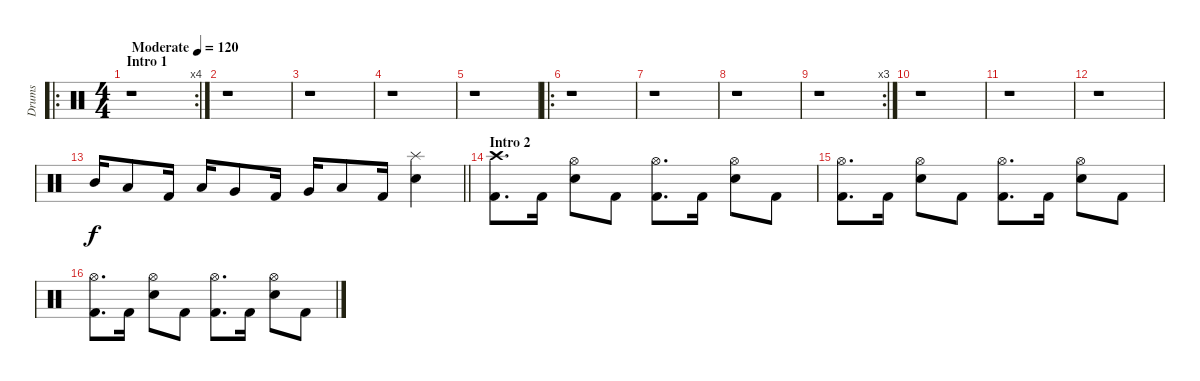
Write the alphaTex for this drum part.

\track ("Drums" "Drums") {instrument percussion}
\staff {score}
\articulation defaults
\ro
\rc 4
\ts (4 4)
\section ("" "Intro 1")
\tempo (120 "Moderate")
\clef neutral
\ks c
r.1{dy f} |
r.1 |
r.1 |
r.1 |
r.1 |
\ro
r.1 |
r.1 |
r.1 |
\rc 3
r.1 |
r.1 |
r.1 |
r.1 |
\barLineRight lightlight "Mid Tom (hit)".16 "Low Tom (hit)".8 "Kick (hit) 2".16 "Low Tom (hit)".16 "Very Low Tom (hit)".8 "Kick (hit) 2".16 "Very Low Tom (hit)".16 "Low Floor Tom (hit)".8 "Kick (hit) 2".16
("Splash (hit)" "Snare (hit) 2").4 |
\section ("" "Intro 2")
("Crash high (hit)" "Kick (hit) 2").8{d} "Kick (hit) 2".16 ("Hi-Hat (open)" "Snare (hit) 2").8 "Kick (hit) 2".8 ("Hi-Hat (open)" "Kick (hit) 2").8{d} "Kick (hit) 2".16 ("Hi-Hat (open)" "Snare (hit) 2").8 "Kick (hit) 2".8 |
("Hi-Hat (open)" "Kick (hit) 2").8{d} "Kick (hit) 2".16 ("Hi-Hat (open)" "Snare (hit) 2").8 "Kick (hit) 2".8 ("Hi-Hat (open)" "Kick (hit) 2").8{d} "Kick (hit) 2".16 ("Hi-Hat (open)" "Snare (hit) 2").8 "Kick (hit) 2".8 |
("Hi-Hat (open)" "Kick (hit) 2").8{d} "Kick (hit) 2".16 ("Hi-Hat (open)" "Snare (hit) 2").8 "Kick (hit) 2".8 ("Hi-Hat (open)" "Kick (hit) 2").8{d} "Kick (hit) 2".16 ("Hi-Hat (open)" "Snare (hit) 2").8 "Kick (hit) 2".8
